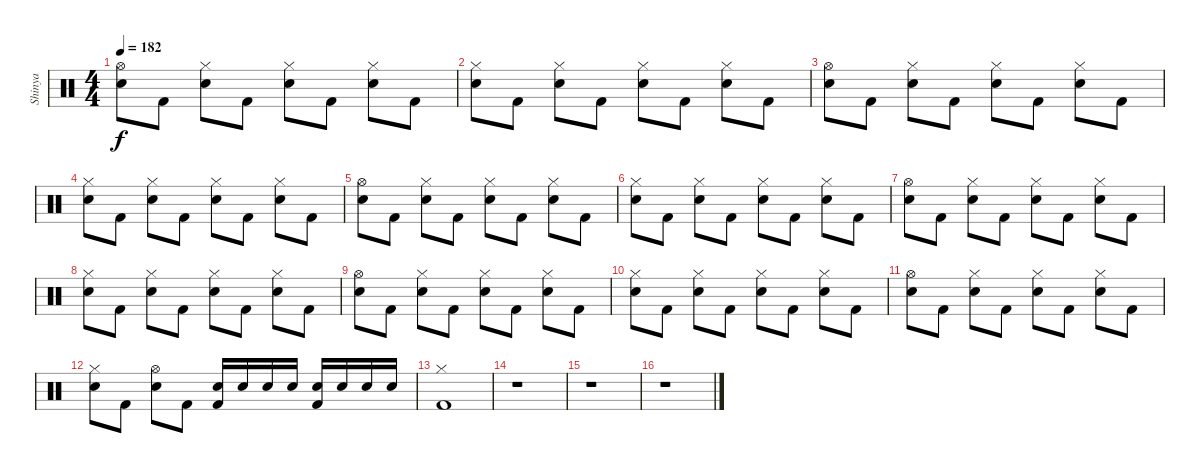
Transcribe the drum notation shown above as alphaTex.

\track ("Shinya" "Shinya") {instrument percussion}
\staff {score}
\articulation defaults
\ts (4 4)
\tempo 182
\clef neutral
\ks c
("Snare (hit) 2" "Hi-Hat (open)").8{dy f} "Kick (hit) 2".8 ("Snare (hit) 2" "Hi-Hat (closed)").8 "Kick (hit) 2".8 ("Snare (hit) 2" "Hi-Hat (closed)").8 "Kick (hit) 2".8 ("Snare (hit) 2" "Hi-Hat (closed)").8 "Kick (hit) 2".8 |
("Snare (hit) 2" "Hi-Hat (closed)").8 "Kick (hit) 2".8 ("Snare (hit) 2" "Hi-Hat (closed)").8 "Kick (hit) 2".8 ("Snare (hit) 2" "Hi-Hat (closed)").8 "Kick (hit) 2".8 ("Snare (hit) 2" "Hi-Hat (closed)").8 "Kick (hit) 2".8 |
("Snare (hit) 2" "Hi-Hat (open)").8 "Kick (hit) 2".8 ("Snare (hit) 2" "Hi-Hat (closed)").8 "Kick (hit) 2".8 ("Snare (hit) 2" "Hi-Hat (closed)").8 "Kick (hit) 2".8 ("Snare (hit) 2" "Hi-Hat (closed)").8 "Kick (hit) 2".8 |
("Snare (hit) 2" "Hi-Hat (closed)").8 "Kick (hit) 2".8 ("Snare (hit) 2" "Hi-Hat (closed)").8 "Kick (hit) 2".8 ("Snare (hit) 2" "Hi-Hat (closed)").8 "Kick (hit) 2".8 ("Snare (hit) 2" "Hi-Hat (closed)").8 "Kick (hit) 2".8 |
("Snare (hit) 2" "Hi-Hat (open)").8 "Kick (hit) 2".8 ("Snare (hit) 2" "Hi-Hat (closed)").8 "Kick (hit) 2".8 ("Snare (hit) 2" "Hi-Hat (closed)").8 "Kick (hit) 2".8 ("Snare (hit) 2" "Hi-Hat (closed)").8 "Kick (hit) 2".8 |
("Snare (hit) 2" "Hi-Hat (closed)").8 "Kick (hit) 2".8 ("Snare (hit) 2" "Hi-Hat (closed)").8 "Kick (hit) 2".8 ("Snare (hit) 2" "Hi-Hat (closed)").8 "Kick (hit) 2".8 ("Snare (hit) 2" "Hi-Hat (closed)").8 "Kick (hit) 2".8 |
("Snare (hit) 2" "Hi-Hat (open)").8 "Kick (hit) 2".8 ("Snare (hit) 2" "Hi-Hat (closed)").8 "Kick (hit) 2".8 ("Snare (hit) 2" "Hi-Hat (closed)").8 "Kick (hit) 2".8 ("Snare (hit) 2" "Hi-Hat (closed)").8 "Kick (hit) 2".8 |
("Snare (hit) 2" "Hi-Hat (closed)").8 "Kick (hit) 2".8 ("Snare (hit) 2" "Hi-Hat (closed)").8 "Kick (hit) 2".8 ("Snare (hit) 2" "Hi-Hat (closed)").8 "Kick (hit) 2".8 ("Snare (hit) 2" "Hi-Hat (closed)").8 "Kick (hit) 2".8 |
("Snare (hit) 2" "Hi-Hat (open)").8 "Kick (hit) 2".8 ("Snare (hit) 2" "Hi-Hat (closed)").8 "Kick (hit) 2".8 ("Snare (hit) 2" "Hi-Hat (closed)").8 "Kick (hit) 2".8 ("Snare (hit) 2" "Hi-Hat (closed)").8 "Kick (hit) 2".8 |
("Snare (hit) 2" "Hi-Hat (closed)").8 "Kick (hit) 2".8 ("Snare (hit) 2" "Hi-Hat (closed)").8 "Kick (hit) 2".8 ("Snare (hit) 2" "Hi-Hat (closed)").8 "Kick (hit) 2".8 ("Snare (hit) 2" "Hi-Hat (closed)").8 "Kick (hit) 2".8 |
("Snare (hit) 2" "Hi-Hat (open)").8 "Kick (hit) 2".8 ("Snare (hit) 2" "Hi-Hat (closed)").8 "Kick (hit) 2".8 ("Snare (hit) 2" "Hi-Hat (closed)").8 "Kick (hit) 2".8 ("Snare (hit) 2" "Hi-Hat (closed)").8 "Kick (hit) 2".8 |
("Snare (hit) 2" "Hi-Hat (closed)").8 "Kick (hit) 2".8 ("Snare (hit) 2" "Hi-Hat (open)").8 "Kick (hit) 2".8 ("Snare (hit) 2" "Kick (hit) 2").16 "Snare (hit) 2".16 "Snare (hit) 2".16 "Snare (hit) 2".16 ("Snare (hit) 2" "Kick (hit) 2").16 "Snare (hit) 2".16 "Snare (hit) 2".16 "Snare (hit) 2".16 |
("Kick (hit) 2" "Hi-Hat (closed)").1 |
r.1 |
r.1 |
r.1
